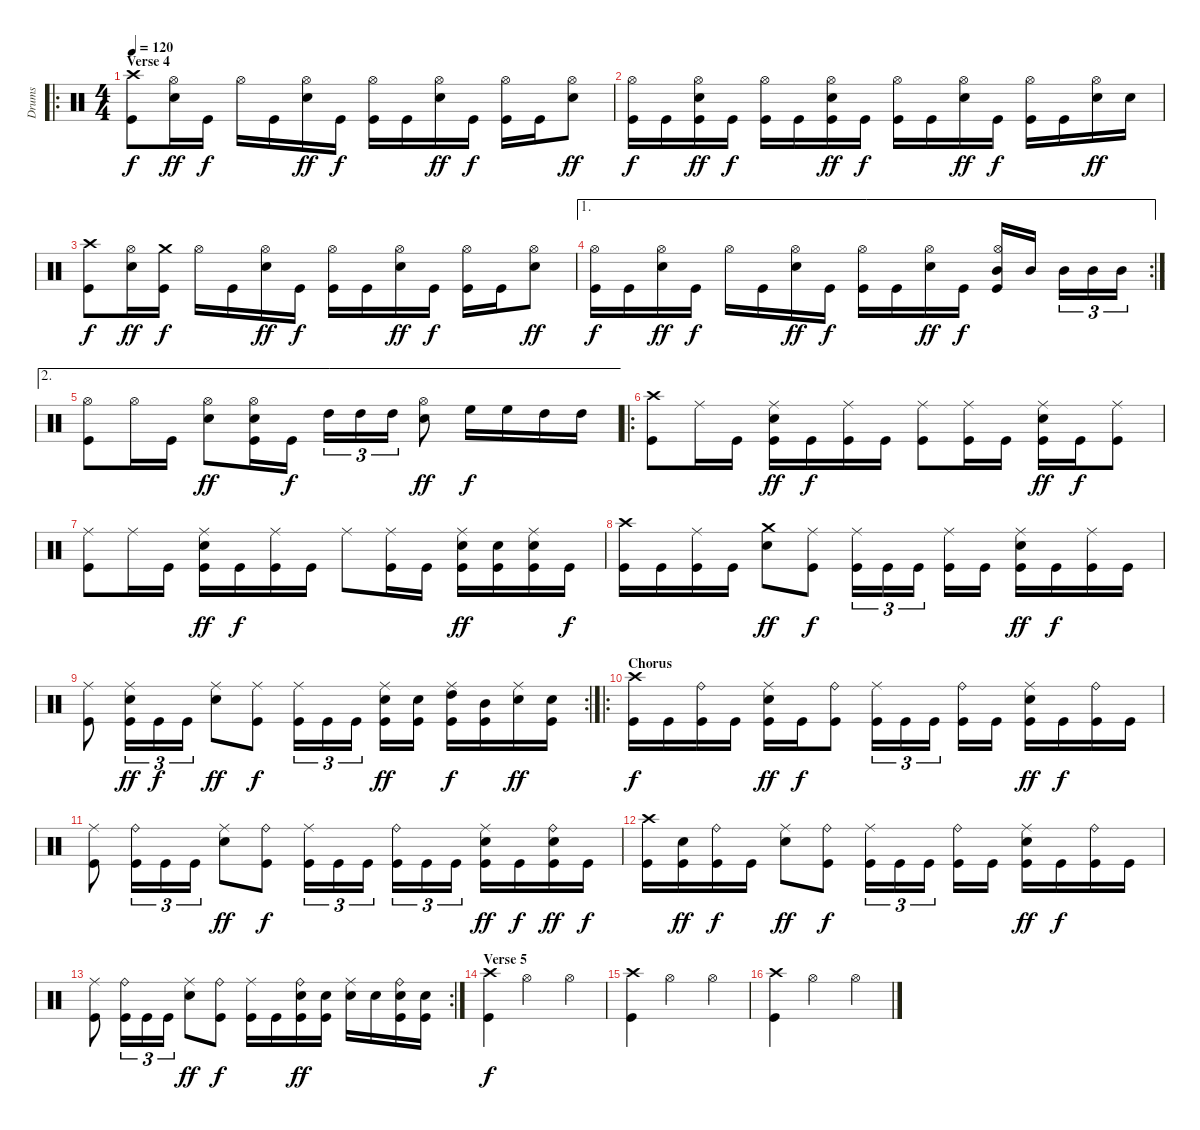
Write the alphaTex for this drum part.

\track ("Drums" "Drums") {instrument percussion}
\staff {score}
\articulation defaults
\ro
\ts (4 4)
\section ("" "Verse 4")
\tempo 120
\clef neutral
\ks c
("Crash high (hit)" "Kick (hit)").8{dy f} ("Hi-Hat (open)" "Electric Snare (hit)").16{dy ff} "Kick (hit)".16{dy f} "Hi-Hat (open)".16 "Kick (hit)".16 ("Hi-Hat (open)" "Electric Snare (hit)").16{dy ff} "Kick (hit)".16{dy f} ("Hi-Hat (open)" "Kick (hit)").16 "Kick (hit)".16 ("Hi-Hat (open)" "Electric Snare (hit)").16{dy ff} "Kick (hit)".16{dy f} ("Hi-Hat (open)" "Kick (hit)").16 "Kick (hit)".16 ("Hi-Hat (open)" "Electric Snare (hit)").8{dy ff} |
("Hi-Hat (open)" "Kick (hit)").16{dy f} "Kick (hit)".16 ("Hi-Hat (open)" "Electric Snare (hit)" "Kick (hit)").16{dy ff} "Kick (hit)".16{dy f} ("Hi-Hat (open)" "Kick (hit)").16 "Kick (hit)".16 ("Hi-Hat (open)" "Electric Snare (hit)" "Kick (hit)").16{dy ff} "Kick (hit)".16{dy f} ("Hi-Hat (open)" "Kick (hit)").16 "Kick (hit)".16 ("Hi-Hat (open)" "Electric Snare (hit)").16{dy ff} "Kick (hit)".16{dy f} ("Hi-Hat (open)" "Kick (hit)").16 "Kick (hit)".16 ("Hi-Hat (open)" "Electric Snare (hit)").16{dy ff} "Electric Snare (hit)".16 |
("Crash high (hit)" "Kick (hit)").8{dy f} ("Hi-Hat (open)" "Electric Snare (hit)").16{dy ff} ("Crash medium (hit)" "Kick (hit)").16{dy f} "Hi-Hat (open)".16 "Kick (hit)".16 ("Hi-Hat (open)" "Electric Snare (hit)").16{dy ff} "Kick (hit)".16{dy f} ("Hi-Hat (open)" "Kick (hit)").16 "Kick (hit)".16 ("Hi-Hat (open)" "Electric Snare (hit)").16{dy ff} "Kick (hit)".16{dy f} ("Hi-Hat (open)" "Kick (hit)").16 "Kick (hit)".16 ("Hi-Hat (open)" "Electric Snare (hit)").8{dy ff} |
\ae 1
\rc 2
("Hi-Hat (open)" "Kick (hit)").16{dy f} "Kick (hit)".16 ("Hi-Hat (open)" "Electric Snare (hit)").16{dy ff} "Kick (hit)".16{dy f} "Hi-Hat (open)".16 "Kick (hit)".16 ("Hi-Hat (open)" "Electric Snare (hit)").16{dy ff} "Kick (hit)".16{dy f} ("Hi-Hat (open)" "Kick (hit)").16 "Kick (hit)".16 ("Hi-Hat (open)" "Electric Snare (hit)").16{dy ff} "Kick (hit)".16{dy f} ("Hi-Hat (open)" "Mid Tom (hit)" "Kick (hit)").16 "Mid Tom (hit)".16 "Mid Tom (hit)".16{tu (3 2)} "Mid Tom (hit)".16{tu (3 2)} "Mid Tom (hit)".16{tu (3 2)} |
\ae 2
("Hi-Hat (open)" "Kick (hit)").8 "Hi-Hat (open)".16 "Kick (hit)".16 ("Hi-Hat (open)" "Electric Snare (hit)").8{dy ff} ("Hi-Hat (open)" "Electric Snare (hit)" "Kick (hit)").16 "Kick (hit)".16{dy f} "High Tom (hit)".16{tu (3 2)} "High Tom (hit)".16{tu (3 2)} "High Tom (hit)".16{tu (3 2)} ("Hi-Hat (open)" "Electric Snare (hit)").8{dy ff} "High Floor Tom (hit)".16{dy f} "High Floor Tom (hit)".16 "High Tom (hit)".16 "High Tom (hit)".16 |
\ro
("Crash high (hit)" "Kick (hit)").8 "Ride (middle)".16 "Kick (hit)".16 ("Ride (middle)" "Electric Snare (hit)" "Kick (hit)").16{dy ff} "Kick (hit)".16{dy f} ("Ride (middle)" "Kick (hit)").16 "Kick (hit)".16 ("Ride (middle)" "Kick (hit)").8 ("Ride (middle)" "Kick (hit)").16 "Kick (hit)".16 ("Ride (middle)" "Electric Snare (hit)" "Kick (hit)").16{dy ff} "Kick (hit)".16{dy f} ("Ride (middle)" "Kick (hit)").8 |
("Ride (middle)" "Kick (hit)").8 "Ride (middle)".16 "Kick (hit)".16 ("Ride (middle)" "Electric Snare (hit)" "Kick (hit)").16{dy ff} "Kick (hit)".16{dy f} ("Ride (middle)" "Kick (hit)").16 "Kick (hit)".16 "Ride (middle)".8 ("Ride (middle)" "Kick (hit)").16 "Kick (hit)".16 ("Ride (middle)" "Electric Snare (hit)" "Kick (hit)").16{dy ff} ("Electric Snare (hit)" "Kick (hit)").16 ("Ride (middle)" "Electric Snare (hit)" "Kick (hit)").16 "Kick (hit)".16{dy f} |
("Crash high (hit)" "Kick (hit)").16 "Kick (hit)".16 ("Ride (middle)" "Kick (hit)").16 "Kick (hit)".16 ("Crash medium (hit)" "Electric Snare (hit)").8{dy ff} ("Ride (middle)" "Kick (hit)").8{dy f} ("Ride (middle)" "Kick (hit)").16{tu (3 2)} "Kick (hit)".16{tu (3 2)} "Kick (hit)".16{tu (3 2)} ("Ride (middle)" "Kick (hit)").16 "Kick (hit)".16 ("Ride (middle)" "Electric Snare (hit)" "Kick (hit)").16{dy ff} "Kick (hit)".16{dy f} ("Ride (middle)" "Kick (hit)").16 "Kick (hit)".16 |
\rc 2
("Ride (middle)" "Kick (hit)").8 ("Ride (middle)" "Electric Snare (hit)" "Kick (hit)").16{tu (3 2) dy ff} "Kick (hit)".16{tu (3 2) dy f} "Kick (hit)".16{tu (3 2)} ("Ride (middle)" "Electric Snare (hit)").8{dy ff} ("Ride (middle)" "Kick (hit)").8{dy f} ("Ride (middle)" "Kick (hit)").16{tu (3 2)} "Kick (hit)".16{tu (3 2)} "Kick (hit)".16{tu (3 2)} ("Ride (middle)" "Electric Snare (hit)" "Kick (hit)").16{dy ff} ("Electric Snare (hit)" "Kick (hit)").16 ("Ride (middle)" "High Tom (hit)" "Kick (hit)").16{dy f} ("Mid Tom (hit)" "Kick (hit)").16 ("Ride (middle)" "Electric Snare (hit)").16{dy ff} ("Electric Snare (hit)" "Kick (hit)").16 |
\ro
\section ("" "Chorus")
("Crash high (hit)" "Kick (hit)").16{dy f} "Kick (hit)".16 ("Ride (bell)" "Kick (hit)").16 "Kick (hit)".16 ("Ride (middle)" "Electric Snare (hit)" "Kick (hit)").16{dy ff} "Kick (hit)".16{dy f} ("Ride (bell)" "Kick (hit)").8 ("Ride (middle)" "Kick (hit)").16{tu (3 2)} "Kick (hit)".16{tu (3 2)} "Kick (hit)".16{tu (3 2)} ("Ride (bell)" "Kick (hit)").16 "Kick (hit)".16 ("Ride (middle)" "Electric Snare (hit)" "Kick (hit)").16{dy ff} "Kick (hit)".16{dy f} ("Ride (bell)" "Kick (hit)").16 "Kick (hit)".16 |
("Ride (middle)" "Kick (hit)").8 ("Ride (bell)" "Kick (hit)").16{tu (3 2)} "Kick (hit)".16{tu (3 2)} "Kick (hit)".16{tu (3 2)} ("Ride (middle)" "Electric Snare (hit)").8{dy ff} ("Ride (bell)" "Kick (hit)").8{dy f} ("Ride (middle)" "Kick (hit)").16{tu (3 2)} "Kick (hit)".16{tu (3 2)} "Kick (hit)".16{tu (3 2)} ("Ride (bell)" "Kick (hit)").16{tu (3 2)} "Kick (hit)".16{tu (3 2)} "Kick (hit)".16{tu (3 2)} ("Ride (middle)" "Electric Snare (hit)" "Kick (hit)").16{dy ff} "Kick (hit)".16{dy f} ("Ride (bell)" "Electric Snare (hit)" "Kick (hit)").16{dy ff} "Kick (hit)".16{dy f} |
("Crash high (hit)" "Kick (hit)").16 ("Electric Snare (hit)" "Kick (hit)").16{dy ff} ("Ride (bell)" "Kick (hit)").16{dy f} "Kick (hit)".16 ("Ride (middle)" "Electric Snare (hit)").8{dy ff} ("Ride (bell)" "Kick (hit)").8{dy f} ("Ride (middle)" "Kick (hit)").16{tu (3 2)} "Kick (hit)".16{tu (3 2)} "Kick (hit)".16{tu (3 2)} ("Ride (bell)" "Kick (hit)").16 "Kick (hit)".16 ("Ride (middle)" "Electric Snare (hit)" "Kick (hit)").16{dy ff} "Kick (hit)".16{dy f} ("Ride (bell)" "Kick (hit)").16 "Kick (hit)".16 |
\rc 2
("Ride (middle)" "Kick (hit)").8 ("Ride (bell)" "Kick (hit)").16{tu (3 2)} "Kick (hit)".16{tu (3 2)} "Kick (hit)".16{tu (3 2)} ("Ride (middle)" "Electric Snare (hit)").8{dy ff} ("Ride (bell)" "Kick (hit)").8{dy f} ("Ride (middle)" "Kick (hit)").16 "Kick (hit)".16 ("Ride (bell)" "Electric Snare (hit)" "Kick (hit)").16{dy ff} ("Electric Snare (hit)" "Kick (hit)").16 ("Ride (middle)" "Electric Snare (hit)").16 "Electric Snare (hit)".16 ("Ride (bell)" "Electric Snare (hit)" "Kick (hit)").16 ("Electric Snare (hit)" "Kick (hit)").16 |
\section ("" "Verse 5")
("Crash high (hit)" "Kick (hit)").4{dy f} "Hi-Hat (open)".2 "Hi-Hat (open)".4 |
("Crash high (hit)" "Kick (hit)").4 "Hi-Hat (open)".2 "Hi-Hat (open)".4 |
("Crash high (hit)" "Kick (hit)").4 "Hi-Hat (open)".2 "Hi-Hat (open)".4
